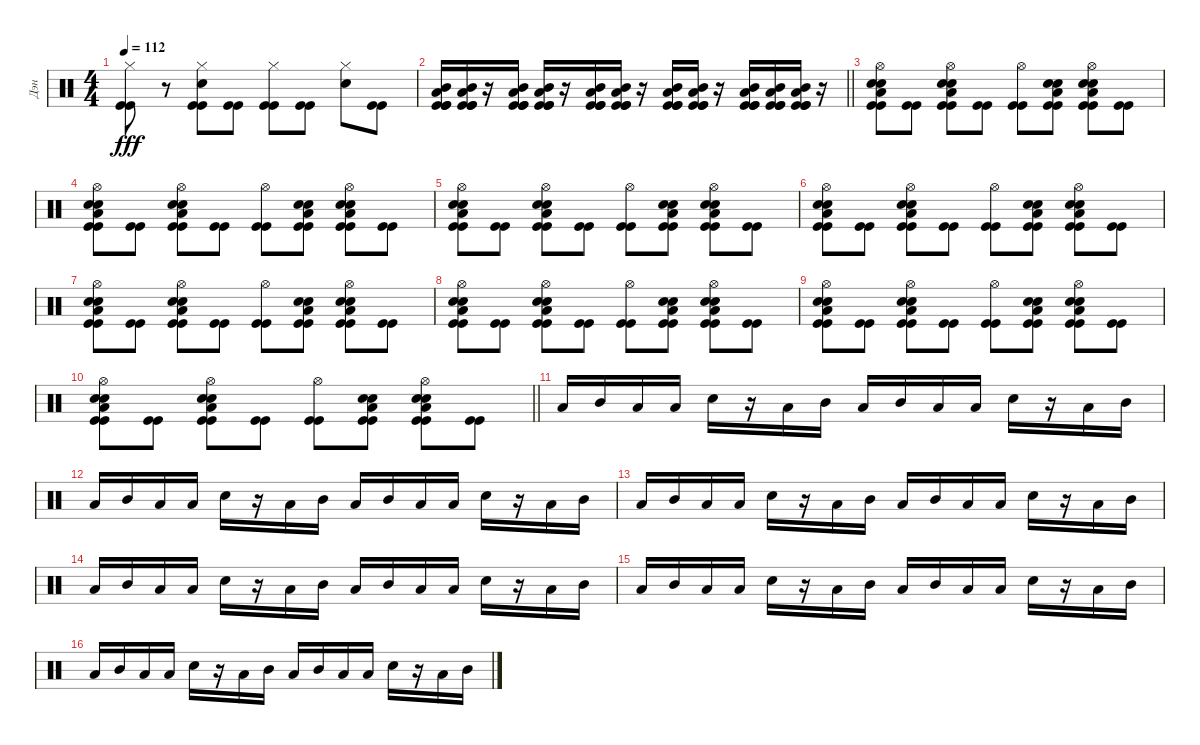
\track ("Дэн" "Дэн") {instrument percussion}
\staff {score}
\articulation defaults
\ts (4 4)
\tempo 112
\clef neutral
\ks c
("Hi-Hat (closed)" "Kick (hit)" "Kick (hit)").8{dy fff} r.8 ("Hi-Hat (closed)" "Kick (hit)" "Kick (hit)" "Electric Snare (hit)").8 ("Kick (hit)" "Kick (hit)").8 ("Hi-Hat (closed)" "Kick (hit)" "Kick (hit)").8 ("Kick (hit)" "Kick (hit)").8 ("Hi-Hat (closed)" "Electric Snare (hit)").8 ("Kick (hit)" "Kick (hit)").8 |
\barLineRight lightlight
("Kick (hit)" "Kick (hit)" "Kick (hit)" "Low Tom (hit)" "Mid Tom (hit)").16 ("Kick (hit)" "Kick (hit)" "Kick (hit)" "Low Tom (hit)" "Mid Tom (hit)").16 r.16 ("Kick (hit)" "Kick (hit)" "Kick (hit)" "Low Tom (hit)" "Mid Tom (hit)").16 ("Kick (hit)" "Kick (hit)" "Kick (hit)" "Low Tom (hit)" "Mid Tom (hit)").16 r.16 ("Kick (hit)" "Kick (hit)" "Kick (hit)" "Low Tom (hit)" "Mid Tom (hit)").16 ("Kick (hit)" "Kick (hit)" "Kick (hit)" "Low Tom (hit)" "Mid Tom (hit)").16 r.16 ("Kick (hit)" "Kick (hit)" "Kick (hit)" "Low Tom (hit)" "Mid Tom (hit)").16 ("Kick (hit)" "Kick (hit)" "Kick (hit)" "Low Tom (hit)" "Mid Tom (hit)").16 r.16 ("Kick (hit)" "Kick (hit)" "Kick (hit)" "Low Tom (hit)" "Mid Tom (hit)").16 ("Kick (hit)" "Kick (hit)" "Kick (hit)" "Low Tom (hit)" "Mid Tom (hit)").16 ("Kick (hit)" "Kick (hit)" "Kick (hit)" "Low Tom (hit)" "Mid Tom (hit)").16 r.16 |
("Hi-Hat (open)" "Kick (hit)" "Kick (hit)" "Electric Snare (hit)" "Electric Snare (hit)" "Low Tom (hit)").8 ("Kick (hit)" "Kick (hit)").8 ("Hi-Hat (open)" "Kick (hit)" "Kick (hit)" "Electric Snare (hit)" "Electric Snare (hit)" "Low Tom (hit)").8 ("Kick (hit)" "Kick (hit)").8 ("Hi-Hat (open)" "Kick (hit)" "Kick (hit)").8 ("Kick (hit)" "Kick (hit)" "Electric Snare (hit)" "Electric Snare (hit)" "Low Tom (hit)").8 ("Hi-Hat (open)" "Kick (hit)" "Kick (hit)" "Electric Snare (hit)" "Electric Snare (hit)" "Low Tom (hit)").8 ("Kick (hit)" "Kick (hit)").8 |
("Hi-Hat (open)" "Kick (hit)" "Kick (hit)" "Electric Snare (hit)" "Electric Snare (hit)" "Low Tom (hit)").8 ("Kick (hit)" "Kick (hit)").8 ("Hi-Hat (open)" "Kick (hit)" "Kick (hit)" "Electric Snare (hit)" "Electric Snare (hit)" "Low Tom (hit)").8 ("Kick (hit)" "Kick (hit)").8 ("Hi-Hat (open)" "Kick (hit)" "Kick (hit)").8 ("Kick (hit)" "Kick (hit)" "Electric Snare (hit)" "Electric Snare (hit)" "Low Tom (hit)").8 ("Hi-Hat (open)" "Kick (hit)" "Kick (hit)" "Electric Snare (hit)" "Electric Snare (hit)" "Low Tom (hit)").8 ("Kick (hit)" "Kick (hit)").8 |
("Hi-Hat (open)" "Kick (hit)" "Kick (hit)" "Electric Snare (hit)" "Electric Snare (hit)" "Low Tom (hit)").8 ("Kick (hit)" "Kick (hit)").8 ("Hi-Hat (open)" "Kick (hit)" "Kick (hit)" "Electric Snare (hit)" "Electric Snare (hit)" "Low Tom (hit)").8 ("Kick (hit)" "Kick (hit)").8 ("Hi-Hat (open)" "Kick (hit)" "Kick (hit)").8 ("Kick (hit)" "Kick (hit)" "Electric Snare (hit)" "Electric Snare (hit)" "Low Tom (hit)").8 ("Hi-Hat (open)" "Kick (hit)" "Kick (hit)" "Electric Snare (hit)" "Electric Snare (hit)" "Low Tom (hit)").8 ("Kick (hit)" "Kick (hit)").8 |
("Hi-Hat (open)" "Kick (hit)" "Kick (hit)" "Electric Snare (hit)" "Electric Snare (hit)" "Low Tom (hit)").8 ("Kick (hit)" "Kick (hit)").8 ("Hi-Hat (open)" "Kick (hit)" "Kick (hit)" "Electric Snare (hit)" "Electric Snare (hit)" "Low Tom (hit)").8 ("Kick (hit)" "Kick (hit)").8 ("Hi-Hat (open)" "Kick (hit)" "Kick (hit)").8 ("Kick (hit)" "Kick (hit)" "Electric Snare (hit)" "Electric Snare (hit)" "Low Tom (hit)").8 ("Hi-Hat (open)" "Kick (hit)" "Kick (hit)" "Electric Snare (hit)" "Electric Snare (hit)" "Low Tom (hit)").8 ("Kick (hit)" "Kick (hit)").8 |
("Hi-Hat (open)" "Kick (hit)" "Kick (hit)" "Electric Snare (hit)" "Electric Snare (hit)" "Low Tom (hit)").8 ("Kick (hit)" "Kick (hit)").8 ("Hi-Hat (open)" "Kick (hit)" "Kick (hit)" "Electric Snare (hit)" "Electric Snare (hit)" "Low Tom (hit)").8 ("Kick (hit)" "Kick (hit)").8 ("Hi-Hat (open)" "Kick (hit)" "Kick (hit)").8 ("Kick (hit)" "Kick (hit)" "Electric Snare (hit)" "Electric Snare (hit)" "Low Tom (hit)").8 ("Hi-Hat (open)" "Kick (hit)" "Kick (hit)" "Electric Snare (hit)" "Electric Snare (hit)" "Low Tom (hit)").8 ("Kick (hit)" "Kick (hit)").8 |
("Hi-Hat (open)" "Kick (hit)" "Kick (hit)" "Electric Snare (hit)" "Electric Snare (hit)" "Low Tom (hit)").8 ("Kick (hit)" "Kick (hit)").8 ("Hi-Hat (open)" "Kick (hit)" "Kick (hit)" "Electric Snare (hit)" "Electric Snare (hit)" "Low Tom (hit)").8 ("Kick (hit)" "Kick (hit)").8 ("Hi-Hat (open)" "Kick (hit)" "Kick (hit)").8 ("Kick (hit)" "Kick (hit)" "Electric Snare (hit)" "Electric Snare (hit)" "Low Tom (hit)").8 ("Hi-Hat (open)" "Kick (hit)" "Kick (hit)" "Electric Snare (hit)" "Electric Snare (hit)" "Low Tom (hit)").8 ("Kick (hit)" "Kick (hit)").8 |
("Hi-Hat (open)" "Kick (hit)" "Kick (hit)" "Electric Snare (hit)" "Electric Snare (hit)" "Low Tom (hit)").8 ("Kick (hit)" "Kick (hit)").8 ("Hi-Hat (open)" "Kick (hit)" "Kick (hit)" "Electric Snare (hit)" "Electric Snare (hit)" "Low Tom (hit)").8 ("Kick (hit)" "Kick (hit)").8 ("Hi-Hat (open)" "Kick (hit)" "Kick (hit)").8 ("Kick (hit)" "Kick (hit)" "Electric Snare (hit)" "Electric Snare (hit)" "Low Tom (hit)").8 ("Hi-Hat (open)" "Kick (hit)" "Kick (hit)" "Electric Snare (hit)" "Electric Snare (hit)" "Low Tom (hit)").8 ("Kick (hit)" "Kick (hit)").8 |
\barLineRight lightlight
("Hi-Hat (open)" "Kick (hit)" "Kick (hit)" "Electric Snare (hit)" "Electric Snare (hit)" "Low Tom (hit)").8 ("Kick (hit)" "Kick (hit)").8 ("Hi-Hat (open)" "Kick (hit)" "Kick (hit)" "Electric Snare (hit)" "Electric Snare (hit)" "Low Tom (hit)").8 ("Kick (hit)" "Kick (hit)").8 ("Hi-Hat (open)" "Kick (hit)" "Kick (hit)").8 ("Kick (hit)" "Kick (hit)" "Electric Snare (hit)" "Electric Snare (hit)" "Low Tom (hit)").8 ("Hi-Hat (open)" "Kick (hit)" "Kick (hit)" "Electric Snare (hit)" "Electric Snare (hit)" "Low Tom (hit)").8 ("Kick (hit)" "Kick (hit)").8 |
"Low Tom (hit)".16 "Mid Tom (hit)".16 "Low Tom (hit)".16 "Low Tom (hit)".16 "Electric Snare (hit)".16 r.16 "Low Tom (hit)".16 "Mid Tom (hit)".16 "Low Tom (hit)".16 "Mid Tom (hit)".16 "Low Tom (hit)".16 "Low Tom (hit)".16 "Electric Snare (hit)".16 r.16 "Low Tom (hit)".16 "Mid Tom (hit)".16 |
"Low Tom (hit)".16 "Mid Tom (hit)".16 "Low Tom (hit)".16 "Low Tom (hit)".16 "Electric Snare (hit)".16 r.16 "Low Tom (hit)".16 "Mid Tom (hit)".16 "Low Tom (hit)".16 "Mid Tom (hit)".16 "Low Tom (hit)".16 "Low Tom (hit)".16 "Electric Snare (hit)".16 r.16 "Low Tom (hit)".16 "Mid Tom (hit)".16 |
"Low Tom (hit)".16 "Mid Tom (hit)".16 "Low Tom (hit)".16 "Low Tom (hit)".16 "Electric Snare (hit)".16 r.16 "Low Tom (hit)".16 "Mid Tom (hit)".16 "Low Tom (hit)".16 "Mid Tom (hit)".16 "Low Tom (hit)".16 "Low Tom (hit)".16 "Electric Snare (hit)".16 r.16 "Low Tom (hit)".16 "Mid Tom (hit)".16 |
"Low Tom (hit)".16 "Mid Tom (hit)".16 "Low Tom (hit)".16 "Low Tom (hit)".16 "Electric Snare (hit)".16 r.16 "Low Tom (hit)".16 "Mid Tom (hit)".16 "Low Tom (hit)".16 "Mid Tom (hit)".16 "Low Tom (hit)".16 "Low Tom (hit)".16 "Electric Snare (hit)".16 r.16 "Low Tom (hit)".16 "Mid Tom (hit)".16 |
"Low Tom (hit)".16 "Mid Tom (hit)".16 "Low Tom (hit)".16 "Low Tom (hit)".16 "Electric Snare (hit)".16 r.16 "Low Tom (hit)".16 "Mid Tom (hit)".16 "Low Tom (hit)".16 "Mid Tom (hit)".16 "Low Tom (hit)".16 "Low Tom (hit)".16 "Electric Snare (hit)".16 r.16 "Low Tom (hit)".16 "Mid Tom (hit)".16 |
"Low Tom (hit)".16 "Mid Tom (hit)".16 "Low Tom (hit)".16 "Low Tom (hit)".16 "Electric Snare (hit)".16 r.16 "Low Tom (hit)".16 "Mid Tom (hit)".16 "Low Tom (hit)".16 "Mid Tom (hit)".16 "Low Tom (hit)".16 "Low Tom (hit)".16 "Electric Snare (hit)".16 r.16 "Low Tom (hit)".16 "Mid Tom (hit)".16
